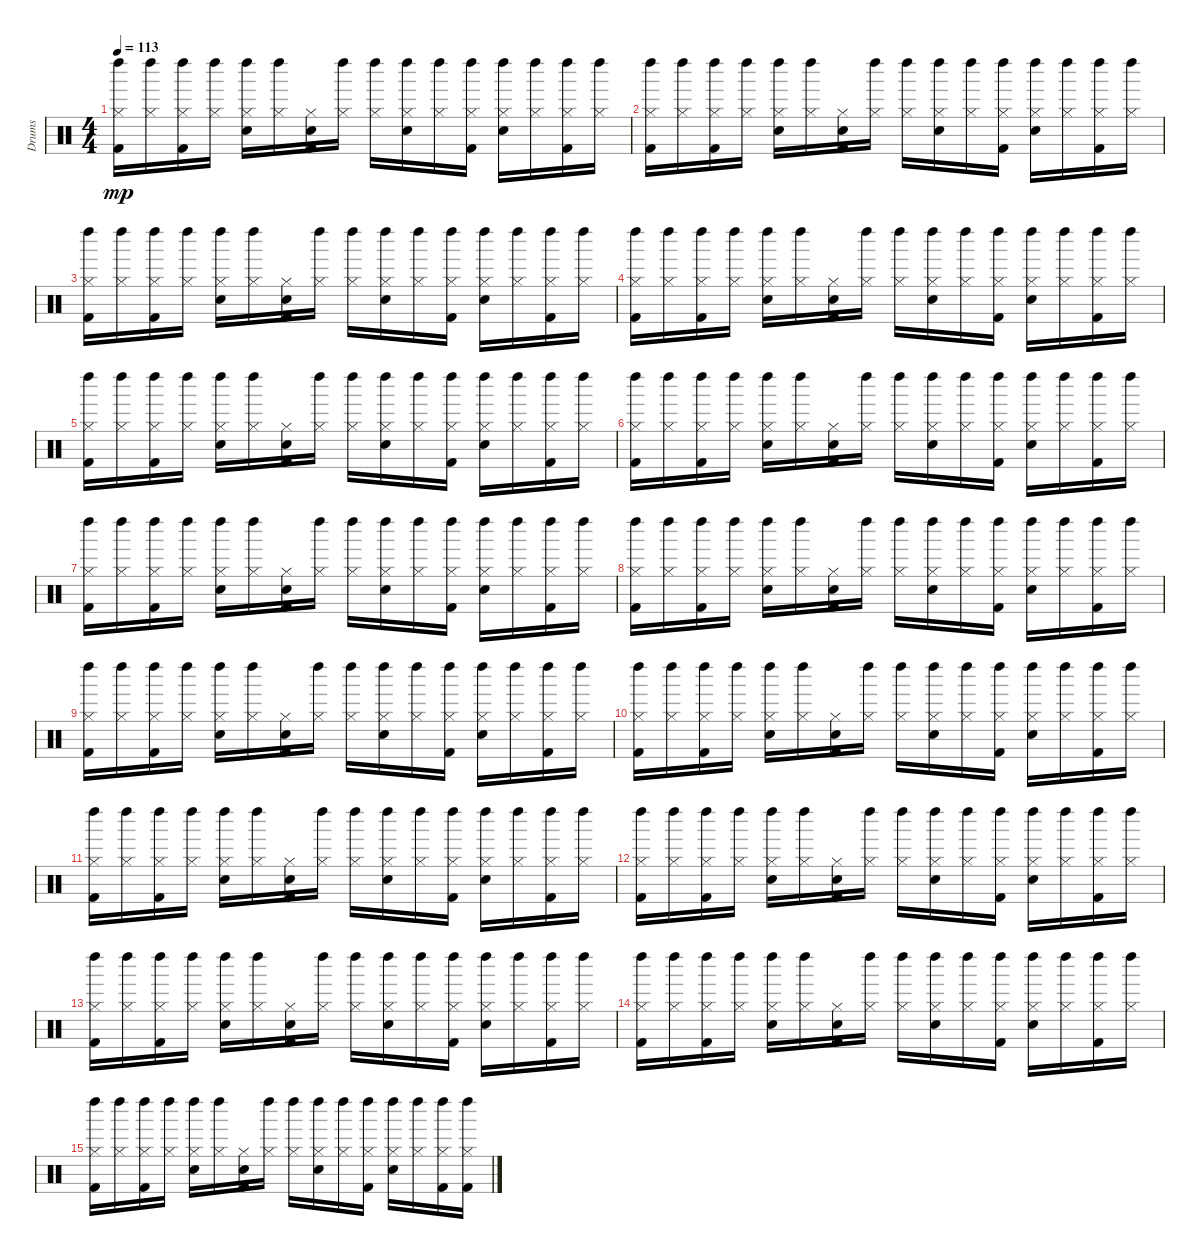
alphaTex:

\track ("Drums" "Drums") {instrument percussion}
\staff {score}
\articulation defaults
\ts (4 4)
\tempo 113
\clef neutral
\ks c
("Hi-Hat (closed)" "Left Maraca (hit)" "Kick (hit) 2").16{dy mp} ("Hi-Hat (closed)" "Left Maraca (hit)").16 ("Hi-Hat (closed)" "Left Maraca (hit)" "Kick (hit) 2").16 ("Hi-Hat (closed)" "Left Maraca (hit)").16 ("Hi-Hat (closed)" "Left Maraca (hit)" "Snare (hit) 2").16 ("Hi-Hat (closed)" "Left Maraca (hit)").16 ("Hi-Hat (closed)" "Snare (hit)" "Kick (hit) 2").16 ("Hi-Hat (closed)" "Left Maraca (hit)").16 ("Hi-Hat (closed)" "Left Maraca (hit)").16 ("Hi-Hat (closed)" "Left Maraca (hit)" "Snare (hit) 2").16 ("Hi-Hat (closed)" "Left Maraca (hit)").16 ("Hi-Hat (closed)" "Left Maraca (hit)" "Kick (hit) 2").16 ("Hi-Hat (closed)" "Left Maraca (hit)" "Snare (hit) 2").16 ("Hi-Hat (closed)" "Left Maraca (hit)").16 ("Hi-Hat (closed)" "Left Maraca (hit)" "Kick (hit) 2").16 ("Hi-Hat (closed)" "Left Maraca (hit)").16 |
("Hi-Hat (closed)" "Left Maraca (hit)" "Kick (hit) 2").16 ("Hi-Hat (closed)" "Left Maraca (hit)").16 ("Hi-Hat (closed)" "Left Maraca (hit)" "Kick (hit) 2").16 ("Hi-Hat (closed)" "Left Maraca (hit)").16 ("Hi-Hat (closed)" "Left Maraca (hit)" "Snare (hit) 2").16 ("Hi-Hat (closed)" "Left Maraca (hit)").16 ("Hi-Hat (closed)" "Snare (hit)" "Kick (hit) 2").16 ("Hi-Hat (closed)" "Left Maraca (hit)").16 ("Hi-Hat (closed)" "Left Maraca (hit)").16 ("Hi-Hat (closed)" "Left Maraca (hit)" "Snare (hit) 2").16 ("Hi-Hat (closed)" "Left Maraca (hit)").16 ("Hi-Hat (closed)" "Left Maraca (hit)" "Kick (hit) 2").16 ("Hi-Hat (closed)" "Left Maraca (hit)" "Snare (hit) 2").16 ("Hi-Hat (closed)" "Left Maraca (hit)").16 ("Hi-Hat (closed)" "Left Maraca (hit)" "Kick (hit) 2").16 ("Hi-Hat (closed)" "Left Maraca (hit)").16 |
("Hi-Hat (closed)" "Left Maraca (hit)" "Kick (hit) 2").16 ("Hi-Hat (closed)" "Left Maraca (hit)").16 ("Hi-Hat (closed)" "Left Maraca (hit)" "Kick (hit) 2").16 ("Hi-Hat (closed)" "Left Maraca (hit)").16 ("Hi-Hat (closed)" "Left Maraca (hit)" "Snare (hit) 2").16 ("Hi-Hat (closed)" "Left Maraca (hit)").16 ("Hi-Hat (closed)" "Snare (hit)" "Kick (hit) 2").16 ("Hi-Hat (closed)" "Left Maraca (hit)").16 ("Hi-Hat (closed)" "Left Maraca (hit)").16 ("Hi-Hat (closed)" "Left Maraca (hit)" "Snare (hit) 2").16 ("Hi-Hat (closed)" "Left Maraca (hit)").16 ("Hi-Hat (closed)" "Left Maraca (hit)" "Kick (hit) 2").16 ("Hi-Hat (closed)" "Left Maraca (hit)" "Snare (hit) 2").16 ("Hi-Hat (closed)" "Left Maraca (hit)").16 ("Hi-Hat (closed)" "Left Maraca (hit)" "Kick (hit) 2").16 ("Hi-Hat (closed)" "Left Maraca (hit)").16 |
("Hi-Hat (closed)" "Left Maraca (hit)" "Kick (hit) 2").16 ("Hi-Hat (closed)" "Left Maraca (hit)").16 ("Hi-Hat (closed)" "Left Maraca (hit)" "Kick (hit) 2").16 ("Hi-Hat (closed)" "Left Maraca (hit)").16 ("Hi-Hat (closed)" "Left Maraca (hit)" "Snare (hit) 2").16 ("Hi-Hat (closed)" "Left Maraca (hit)").16 ("Hi-Hat (closed)" "Snare (hit)" "Kick (hit) 2").16 ("Hi-Hat (closed)" "Left Maraca (hit)").16 ("Hi-Hat (closed)" "Left Maraca (hit)").16 ("Hi-Hat (closed)" "Left Maraca (hit)" "Snare (hit) 2").16 ("Hi-Hat (closed)" "Left Maraca (hit)").16 ("Hi-Hat (closed)" "Left Maraca (hit)" "Kick (hit) 2").16 ("Hi-Hat (closed)" "Left Maraca (hit)" "Snare (hit) 2").16 ("Hi-Hat (closed)" "Left Maraca (hit)").16 ("Hi-Hat (closed)" "Left Maraca (hit)" "Kick (hit) 2").16 ("Hi-Hat (closed)" "Left Maraca (hit)").16 |
("Hi-Hat (closed)" "Left Maraca (hit)" "Kick (hit) 2").16 ("Hi-Hat (closed)" "Left Maraca (hit)").16 ("Hi-Hat (closed)" "Left Maraca (hit)" "Kick (hit) 2").16 ("Hi-Hat (closed)" "Left Maraca (hit)").16 ("Hi-Hat (closed)" "Left Maraca (hit)" "Snare (hit) 2").16 ("Hi-Hat (closed)" "Left Maraca (hit)").16 ("Hi-Hat (closed)" "Snare (hit)" "Kick (hit) 2").16 ("Hi-Hat (closed)" "Left Maraca (hit)").16 ("Hi-Hat (closed)" "Left Maraca (hit)").16 ("Hi-Hat (closed)" "Left Maraca (hit)" "Snare (hit) 2").16 ("Hi-Hat (closed)" "Left Maraca (hit)").16 ("Hi-Hat (closed)" "Left Maraca (hit)" "Kick (hit) 2").16 ("Hi-Hat (closed)" "Left Maraca (hit)" "Snare (hit) 2").16 ("Hi-Hat (closed)" "Left Maraca (hit)").16 ("Hi-Hat (closed)" "Left Maraca (hit)" "Kick (hit) 2").16 ("Hi-Hat (closed)" "Left Maraca (hit)").16 |
("Hi-Hat (closed)" "Left Maraca (hit)" "Kick (hit) 2").16 ("Hi-Hat (closed)" "Left Maraca (hit)").16 ("Hi-Hat (closed)" "Left Maraca (hit)" "Kick (hit) 2").16 ("Hi-Hat (closed)" "Left Maraca (hit)").16 ("Hi-Hat (closed)" "Left Maraca (hit)" "Snare (hit) 2").16 ("Hi-Hat (closed)" "Left Maraca (hit)").16 ("Hi-Hat (closed)" "Snare (hit)" "Kick (hit) 2").16 ("Hi-Hat (closed)" "Left Maraca (hit)").16 ("Hi-Hat (closed)" "Left Maraca (hit)").16 ("Hi-Hat (closed)" "Left Maraca (hit)" "Snare (hit) 2").16 ("Hi-Hat (closed)" "Left Maraca (hit)").16 ("Hi-Hat (closed)" "Left Maraca (hit)" "Kick (hit) 2").16 ("Hi-Hat (closed)" "Left Maraca (hit)" "Snare (hit) 2").16 ("Hi-Hat (closed)" "Left Maraca (hit)").16 ("Hi-Hat (closed)" "Left Maraca (hit)" "Kick (hit) 2").16 ("Hi-Hat (closed)" "Left Maraca (hit)").16 |
("Hi-Hat (closed)" "Left Maraca (hit)" "Kick (hit) 2").16 ("Hi-Hat (closed)" "Left Maraca (hit)").16 ("Hi-Hat (closed)" "Left Maraca (hit)" "Kick (hit) 2").16 ("Hi-Hat (closed)" "Left Maraca (hit)").16 ("Hi-Hat (closed)" "Left Maraca (hit)" "Snare (hit) 2").16 ("Hi-Hat (closed)" "Left Maraca (hit)").16 ("Hi-Hat (closed)" "Snare (hit)" "Kick (hit) 2").16 ("Hi-Hat (closed)" "Left Maraca (hit)").16 ("Hi-Hat (closed)" "Left Maraca (hit)").16 ("Hi-Hat (closed)" "Left Maraca (hit)" "Snare (hit) 2").16 ("Hi-Hat (closed)" "Left Maraca (hit)").16 ("Hi-Hat (closed)" "Left Maraca (hit)" "Kick (hit) 2").16 ("Hi-Hat (closed)" "Left Maraca (hit)" "Snare (hit) 2").16 ("Hi-Hat (closed)" "Left Maraca (hit)").16 ("Hi-Hat (closed)" "Left Maraca (hit)" "Kick (hit) 2").16 ("Hi-Hat (closed)" "Left Maraca (hit)").16 |
("Hi-Hat (closed)" "Left Maraca (hit)" "Kick (hit) 2").16 ("Hi-Hat (closed)" "Left Maraca (hit)").16 ("Hi-Hat (closed)" "Left Maraca (hit)" "Kick (hit) 2").16 ("Hi-Hat (closed)" "Left Maraca (hit)").16 ("Hi-Hat (closed)" "Left Maraca (hit)" "Snare (hit) 2").16 ("Hi-Hat (closed)" "Left Maraca (hit)").16 ("Hi-Hat (closed)" "Snare (hit)" "Kick (hit) 2").16 ("Hi-Hat (closed)" "Left Maraca (hit)").16 ("Hi-Hat (closed)" "Left Maraca (hit)").16 ("Hi-Hat (closed)" "Left Maraca (hit)" "Snare (hit) 2").16 ("Hi-Hat (closed)" "Left Maraca (hit)").16 ("Hi-Hat (closed)" "Left Maraca (hit)" "Kick (hit) 2").16 ("Hi-Hat (closed)" "Left Maraca (hit)" "Snare (hit) 2").16 ("Hi-Hat (closed)" "Left Maraca (hit)").16 ("Hi-Hat (closed)" "Left Maraca (hit)" "Kick (hit) 2").16 ("Hi-Hat (closed)" "Left Maraca (hit)").16 |
("Hi-Hat (closed)" "Left Maraca (hit)" "Kick (hit) 2").16 ("Hi-Hat (closed)" "Left Maraca (hit)").16 ("Hi-Hat (closed)" "Left Maraca (hit)" "Kick (hit) 2").16 ("Hi-Hat (closed)" "Left Maraca (hit)").16 ("Hi-Hat (closed)" "Left Maraca (hit)" "Snare (hit) 2").16 ("Hi-Hat (closed)" "Left Maraca (hit)").16 ("Hi-Hat (closed)" "Snare (hit)" "Kick (hit) 2").16 ("Hi-Hat (closed)" "Left Maraca (hit)").16 ("Hi-Hat (closed)" "Left Maraca (hit)").16 ("Hi-Hat (closed)" "Left Maraca (hit)" "Snare (hit) 2").16 ("Hi-Hat (closed)" "Left Maraca (hit)").16 ("Hi-Hat (closed)" "Left Maraca (hit)" "Kick (hit) 2").16 ("Hi-Hat (closed)" "Left Maraca (hit)" "Snare (hit) 2").16 ("Hi-Hat (closed)" "Left Maraca (hit)").16 ("Hi-Hat (closed)" "Left Maraca (hit)" "Kick (hit) 2").16 ("Hi-Hat (closed)" "Left Maraca (hit)").16 |
("Hi-Hat (closed)" "Left Maraca (hit)" "Kick (hit) 2").16 ("Hi-Hat (closed)" "Left Maraca (hit)").16 ("Hi-Hat (closed)" "Left Maraca (hit)" "Kick (hit) 2").16 ("Hi-Hat (closed)" "Left Maraca (hit)").16 ("Hi-Hat (closed)" "Left Maraca (hit)" "Snare (hit) 2").16 ("Hi-Hat (closed)" "Left Maraca (hit)").16 ("Hi-Hat (closed)" "Snare (hit)" "Kick (hit) 2").16 ("Hi-Hat (closed)" "Left Maraca (hit)").16 ("Hi-Hat (closed)" "Left Maraca (hit)").16 ("Hi-Hat (closed)" "Left Maraca (hit)" "Snare (hit) 2").16 ("Hi-Hat (closed)" "Left Maraca (hit)").16 ("Hi-Hat (closed)" "Left Maraca (hit)" "Kick (hit) 2").16 ("Hi-Hat (closed)" "Left Maraca (hit)" "Snare (hit) 2").16 ("Hi-Hat (closed)" "Left Maraca (hit)").16 ("Hi-Hat (closed)" "Left Maraca (hit)" "Kick (hit) 2").16 ("Hi-Hat (closed)" "Left Maraca (hit)").16 |
("Hi-Hat (closed)" "Left Maraca (hit)" "Kick (hit) 2").16 ("Hi-Hat (closed)" "Left Maraca (hit)").16 ("Hi-Hat (closed)" "Left Maraca (hit)" "Kick (hit) 2").16 ("Hi-Hat (closed)" "Left Maraca (hit)").16 ("Hi-Hat (closed)" "Left Maraca (hit)" "Snare (hit) 2").16 ("Hi-Hat (closed)" "Left Maraca (hit)").16 ("Hi-Hat (closed)" "Snare (hit)" "Kick (hit) 2").16 ("Hi-Hat (closed)" "Left Maraca (hit)").16 ("Hi-Hat (closed)" "Left Maraca (hit)").16 ("Hi-Hat (closed)" "Left Maraca (hit)" "Snare (hit) 2").16 ("Hi-Hat (closed)" "Left Maraca (hit)").16 ("Hi-Hat (closed)" "Left Maraca (hit)" "Kick (hit) 2").16 ("Hi-Hat (closed)" "Left Maraca (hit)" "Snare (hit) 2").16 ("Hi-Hat (closed)" "Left Maraca (hit)").16 ("Hi-Hat (closed)" "Left Maraca (hit)" "Kick (hit) 2").16 ("Hi-Hat (closed)" "Left Maraca (hit)").16 |
("Hi-Hat (closed)" "Left Maraca (hit)" "Kick (hit) 2").16 ("Hi-Hat (closed)" "Left Maraca (hit)").16 ("Hi-Hat (closed)" "Left Maraca (hit)" "Kick (hit) 2").16 ("Hi-Hat (closed)" "Left Maraca (hit)").16 ("Hi-Hat (closed)" "Left Maraca (hit)" "Snare (hit) 2").16 ("Hi-Hat (closed)" "Left Maraca (hit)").16 ("Hi-Hat (closed)" "Snare (hit)" "Kick (hit) 2").16 ("Hi-Hat (closed)" "Left Maraca (hit)").16 ("Hi-Hat (closed)" "Left Maraca (hit)").16 ("Hi-Hat (closed)" "Left Maraca (hit)" "Snare (hit) 2").16 ("Hi-Hat (closed)" "Left Maraca (hit)").16 ("Hi-Hat (closed)" "Left Maraca (hit)" "Kick (hit) 2").16 ("Hi-Hat (closed)" "Left Maraca (hit)" "Snare (hit) 2").16 ("Hi-Hat (closed)" "Left Maraca (hit)").16 ("Hi-Hat (closed)" "Left Maraca (hit)" "Kick (hit) 2").16 ("Hi-Hat (closed)" "Left Maraca (hit)").16 |
("Hi-Hat (closed)" "Left Maraca (hit)" "Kick (hit) 2").16 ("Hi-Hat (closed)" "Left Maraca (hit)").16 ("Hi-Hat (closed)" "Left Maraca (hit)" "Kick (hit) 2").16 ("Hi-Hat (closed)" "Left Maraca (hit)").16 ("Hi-Hat (closed)" "Left Maraca (hit)" "Snare (hit) 2").16 ("Hi-Hat (closed)" "Left Maraca (hit)").16 ("Hi-Hat (closed)" "Snare (hit)" "Kick (hit) 2").16 ("Hi-Hat (closed)" "Left Maraca (hit)").16 ("Hi-Hat (closed)" "Left Maraca (hit)").16 ("Hi-Hat (closed)" "Left Maraca (hit)" "Snare (hit) 2").16 ("Hi-Hat (closed)" "Left Maraca (hit)").16 ("Hi-Hat (closed)" "Left Maraca (hit)" "Kick (hit) 2").16 ("Hi-Hat (closed)" "Left Maraca (hit)" "Snare (hit) 2").16 ("Hi-Hat (closed)" "Left Maraca (hit)").16 ("Hi-Hat (closed)" "Left Maraca (hit)" "Kick (hit) 2").16 ("Hi-Hat (closed)" "Left Maraca (hit)").16 |
("Hi-Hat (closed)" "Left Maraca (hit)" "Kick (hit) 2").16 ("Hi-Hat (closed)" "Left Maraca (hit)").16 ("Hi-Hat (closed)" "Left Maraca (hit)" "Kick (hit) 2").16 ("Hi-Hat (closed)" "Left Maraca (hit)").16 ("Hi-Hat (closed)" "Left Maraca (hit)" "Snare (hit) 2").16 ("Hi-Hat (closed)" "Left Maraca (hit)").16 ("Hi-Hat (closed)" "Snare (hit)" "Kick (hit) 2").16 ("Hi-Hat (closed)" "Left Maraca (hit)").16 ("Hi-Hat (closed)" "Left Maraca (hit)").16 ("Hi-Hat (closed)" "Left Maraca (hit)" "Snare (hit) 2").16 ("Hi-Hat (closed)" "Left Maraca (hit)").16 ("Hi-Hat (closed)" "Left Maraca (hit)" "Kick (hit) 2").16 ("Hi-Hat (closed)" "Left Maraca (hit)" "Snare (hit) 2").16 ("Hi-Hat (closed)" "Left Maraca (hit)").16 ("Hi-Hat (closed)" "Left Maraca (hit)" "Kick (hit) 2").16 ("Hi-Hat (closed)" "Left Maraca (hit)").16 |
("Hi-Hat (closed)" "Left Maraca (hit)" "Kick (hit) 2").16 ("Hi-Hat (closed)" "Left Maraca (hit)").16 ("Hi-Hat (closed)" "Left Maraca (hit)" "Kick (hit) 2").16 ("Hi-Hat (closed)" "Left Maraca (hit)").16 ("Hi-Hat (closed)" "Left Maraca (hit)" "Snare (hit) 2").16 ("Hi-Hat (closed)" "Left Maraca (hit)").16 ("Hi-Hat (closed)" "Snare (hit)" "Kick (hit) 2").16 ("Hi-Hat (closed)" "Left Maraca (hit)").16 ("Hi-Hat (closed)" "Left Maraca (hit)").16 ("Hi-Hat (closed)" "Left Maraca (hit)" "Snare (hit) 2").16 ("Hi-Hat (closed)" "Left Maraca (hit)").16 ("Hi-Hat (closed)" "Left Maraca (hit)" "Kick (hit) 2").16 ("Hi-Hat (closed)" "Left Maraca (hit)" "Snare (hit) 2").16 ("Hi-Hat (closed)" "Left Maraca (hit)").16 ("Hi-Hat (closed)" "Left Maraca (hit)" "Kick (hit) 2").16 ("Hi-Hat (closed)" "Left Maraca (hit)" "Kick (hit) 2").16
